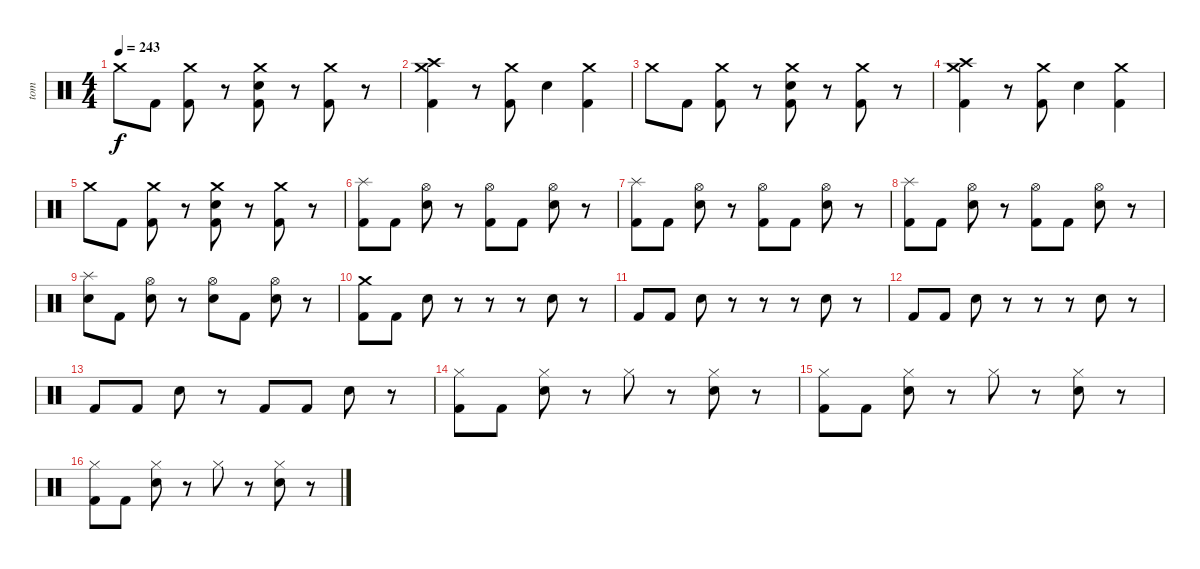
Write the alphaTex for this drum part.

\track ("tom" "tom") {instrument percussion}
\staff {score}
\articulation defaults
\ts (4 4)
\tempo 243
\clef neutral
\ks c "Crash medium (hit)".8{dy f} "Kick (hit) 2".8
("Crash medium (hit)" "Kick (hit) 2").8 r.8 ("Crash medium (hit)" "Electric Snare (hit)" "Kick (hit) 2").8 r.8 ("Crash medium (hit)" "Kick (hit) 2").8 r.8 |
("Crash high (hit)" "Crash medium (hit)" "Kick (hit) 2").4 r.8 ("Crash medium (hit)" "Kick (hit) 2").8 "Electric Snare (hit)".4 ("Crash medium (hit)" "Kick (hit) 2").4 |
"Crash medium (hit)".8 "Kick (hit) 2".8 ("Crash medium (hit)" "Kick (hit) 2").8 r.8 ("Crash medium (hit)" "Electric Snare (hit)" "Kick (hit) 2").8 r.8 ("Crash medium (hit)" "Kick (hit) 2").8 r.8 |
("Crash high (hit)" "Crash medium (hit)" "Kick (hit) 2").4 r.8 ("Crash medium (hit)" "Kick (hit) 2").8 "Electric Snare (hit)".4 ("Crash medium (hit)" "Kick (hit) 2").4 |
"Crash medium (hit)".8 "Kick (hit) 2".8 ("Crash medium (hit)" "Kick (hit) 2").8 r.8 ("Crash medium (hit)" "Electric Snare (hit)" "Kick (hit) 2").8 r.8 ("Crash medium (hit)" "Kick (hit) 2").8 r.8 |
("Splash (hit)" "Kick (hit) 2").8 "Kick (hit) 2".8 ("Hi-Hat (open)" "Electric Snare (hit)").8 r.8 ("Hi-Hat (open)" "Kick (hit) 2").8 "Kick (hit) 2".8 ("Hi-Hat (open)" "Electric Snare (hit)").8 r.8 |
("Splash (hit)" "Kick (hit) 2").8 "Kick (hit) 2".8 ("Hi-Hat (open)" "Electric Snare (hit)").8 r.8 ("Hi-Hat (open)" "Kick (hit) 2").8 "Kick (hit) 2".8 ("Hi-Hat (open)" "Electric Snare (hit)").8 r.8 |
("Splash (hit)" "Kick (hit) 2").8 "Kick (hit) 2".8 ("Hi-Hat (open)" "Electric Snare (hit)").8 r.8 ("Hi-Hat (open)" "Kick (hit) 2").8 "Kick (hit) 2".8 ("Hi-Hat (open)" "Electric Snare (hit)").8 r.8 |
("Splash (hit)" "Electric Snare (hit)").8 "Kick (hit) 2".8 ("Hi-Hat (open)" "Electric Snare (hit)").8 r.8 ("Hi-Hat (open)" "Electric Snare (hit)").8 "Kick (hit) 2".8 ("Hi-Hat (open)" "Electric Snare (hit)").8 r.8 |
("Crash medium (hit)" "Kick (hit) 2").8 "Kick (hit) 2".8 "Electric Snare (hit)".8 r.8 r.8 r.8 "Electric Snare (hit)".8 r.8 |
"Kick (hit) 2".8 "Kick (hit) 2".8 "Electric Snare (hit)".8 r.8 r.8 r.8 "Electric Snare (hit)".8 r.8 |
"Kick (hit) 2".8 "Kick (hit) 2".8 "Electric Snare (hit)".8 r.8 r.8 r.8 "Electric Snare (hit)".8 r.8 |
"Kick (hit) 2".8 "Kick (hit) 2".8 "Electric Snare (hit)".8 r.8 "Kick (hit) 2".8 "Kick (hit) 2".8 "Electric Snare (hit)".8 r.8 |
("Hi-Hat (closed)" "Kick (hit) 2").8 "Kick (hit) 2".8 ("Hi-Hat (closed)" "Electric Snare (hit)").8 r.8 "Hi-Hat (closed)".8 r.8 ("Hi-Hat (closed)" "Electric Snare (hit)").8 r.8 |
("Hi-Hat (closed)" "Kick (hit) 2").8 "Kick (hit) 2".8 ("Hi-Hat (closed)" "Electric Snare (hit)").8 r.8 "Hi-Hat (closed)".8 r.8 ("Hi-Hat (closed)" "Electric Snare (hit)").8 r.8 |
("Hi-Hat (closed)" "Kick (hit) 2").8 "Kick (hit) 2".8 ("Hi-Hat (closed)" "Electric Snare (hit)").8 r.8 "Hi-Hat (closed)".8 r.8 ("Hi-Hat (closed)" "Electric Snare (hit)").8 r.8
